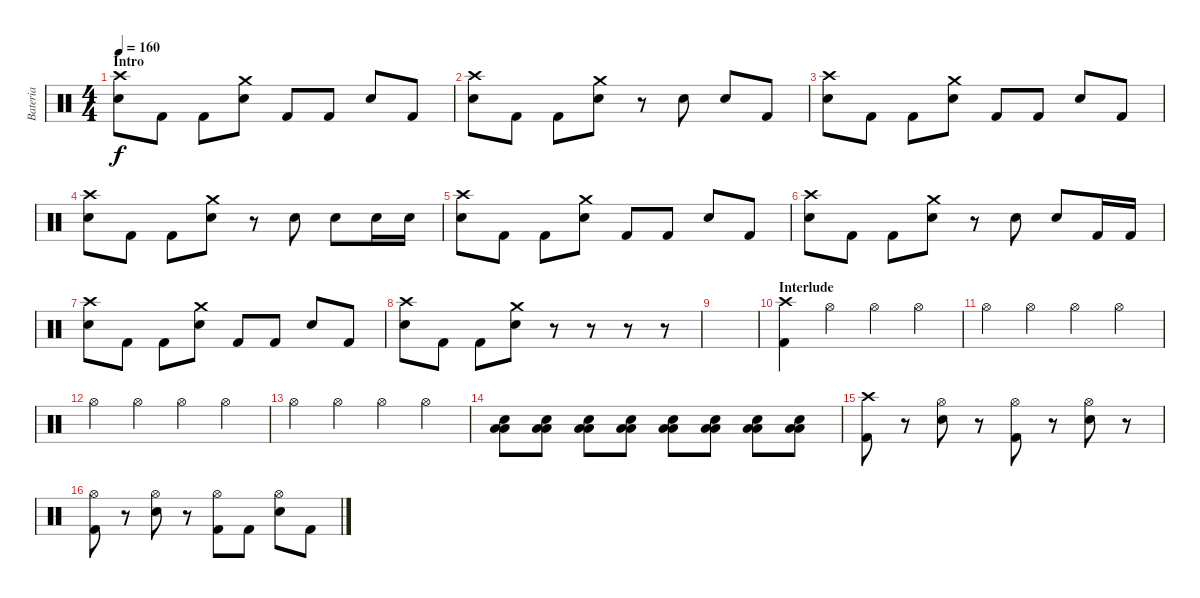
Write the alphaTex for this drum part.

\track ("Bateria" "Bateria") {instrument percussion}
\staff {score}
\articulation defaults
\ts (4 4)
\section ("" "Intro")
\tempo 160
\clef neutral
\ks c
("Crash high (hit)" "Snare (hit) 2").8{dy f} "Kick (hit) 2".8 "Kick (hit) 2".8 ("Crash medium (hit)" "Snare (hit) 2").8 "Kick (hit) 2".8 "Kick (hit) 2".8 "Snare (hit) 2".8 "Kick (hit) 2".8 |
("Crash high (hit)" "Snare (hit) 2").8 "Kick (hit) 2".8 "Kick (hit) 2".8 ("Crash medium (hit)" "Snare (hit) 2").8 r.8 "Snare (hit) 2".8 "Snare (hit) 2".8 "Kick (hit) 2".8 |
("Crash high (hit)" "Snare (hit) 2").8 "Kick (hit) 2".8 "Kick (hit) 2".8 ("Crash medium (hit)" "Snare (hit) 2").8 "Kick (hit) 2".8 "Kick (hit) 2".8 "Snare (hit) 2".8 "Kick (hit) 2".8 |
("Crash high (hit)" "Snare (hit) 2").8 "Kick (hit) 2".8 "Kick (hit) 2".8 ("Crash medium (hit)" "Snare (hit) 2").8 r.8 "Snare (hit) 2".8 "Snare (hit) 2".8 "Snare (hit) 2".16 "Snare (hit) 2".16 |
("Crash high (hit)" "Snare (hit) 2").8 "Kick (hit) 2".8 "Kick (hit) 2".8 ("Crash medium (hit)" "Snare (hit) 2").8 "Kick (hit) 2".8 "Kick (hit) 2".8 "Snare (hit) 2".8 "Kick (hit) 2".8 |
("Crash high (hit)" "Snare (hit) 2").8 "Kick (hit) 2".8 "Kick (hit) 2".8 ("Crash medium (hit)" "Snare (hit) 2").8 r.8 "Snare (hit) 2".8 "Snare (hit) 2".8 "Kick (hit) 2".16 "Kick (hit) 2".16 |
("Crash high (hit)" "Snare (hit) 2").8 "Kick (hit) 2".8 "Kick (hit) 2".8 ("Crash medium (hit)" "Snare (hit) 2").8 "Kick (hit) 2".8 "Kick (hit) 2".8 "Snare (hit) 2".8 "Kick (hit) 2".8 |
("Crash high (hit)" "Snare (hit) 2").8 "Kick (hit) 2".8 "Kick (hit) 2".8 ("Crash medium (hit)" "Snare (hit) 2").8 r.8 r.8 r.8 r.8 |
|
\section ("" "Interlude")
("Crash high (hit)" "Kick (hit) 2").4 "Hi-Hat (open)".4 "Hi-Hat (open)".4 "Hi-Hat (open)".4 |
"Hi-Hat (open)".4 "Hi-Hat (open)".4 "Hi-Hat (open)".4 "Hi-Hat (open)".4 |
"Hi-Hat (open)".4 "Hi-Hat (open)".4 "Hi-Hat (open)".4 "Hi-Hat (open)".4 |
"Hi-Hat (open)".4 "Hi-Hat (open)".4 "Hi-Hat (open)".4 "Hi-Hat (open)".4 |
("Low Floor Tom (hit)" "Low Floor Tom (hit)" "Snare (hit) 2").8 ("Low Floor Tom (hit)" "Low Floor Tom (hit)" "Snare (hit) 2").8 ("Low Floor Tom (hit)" "Low Floor Tom (hit)" "Snare (hit) 2").8 ("Low Floor Tom (hit)" "Low Floor Tom (hit)" "Snare (hit) 2").8 ("Low Floor Tom (hit)" "Low Floor Tom (hit)" "Snare (hit) 2").8 ("Low Floor Tom (hit)" "Low Floor Tom (hit)" "Snare (hit) 2").8 ("Low Floor Tom (hit)" "Low Floor Tom (hit)" "Snare (hit) 2").8 ("Low Floor Tom (hit)" "Low Floor Tom (hit)" "Snare (hit) 2").8 |
("Crash high (hit)" "Kick (hit) 2").8 r.8 ("Hi-Hat (open)" "Snare (hit) 2").8 r.8 ("Hi-Hat (open)" "Kick (hit) 2").8 r.8 ("Hi-Hat (open)" "Snare (hit) 2").8 r.8 |
("Hi-Hat (open)" "Kick (hit) 2").8 r.8 ("Hi-Hat (open)" "Snare (hit) 2").8 r.8 ("Hi-Hat (open)" "Kick (hit) 2").8 "Kick (hit) 2".8 ("Hi-Hat (open)" "Snare (hit) 2").8 "Kick (hit) 2".8
